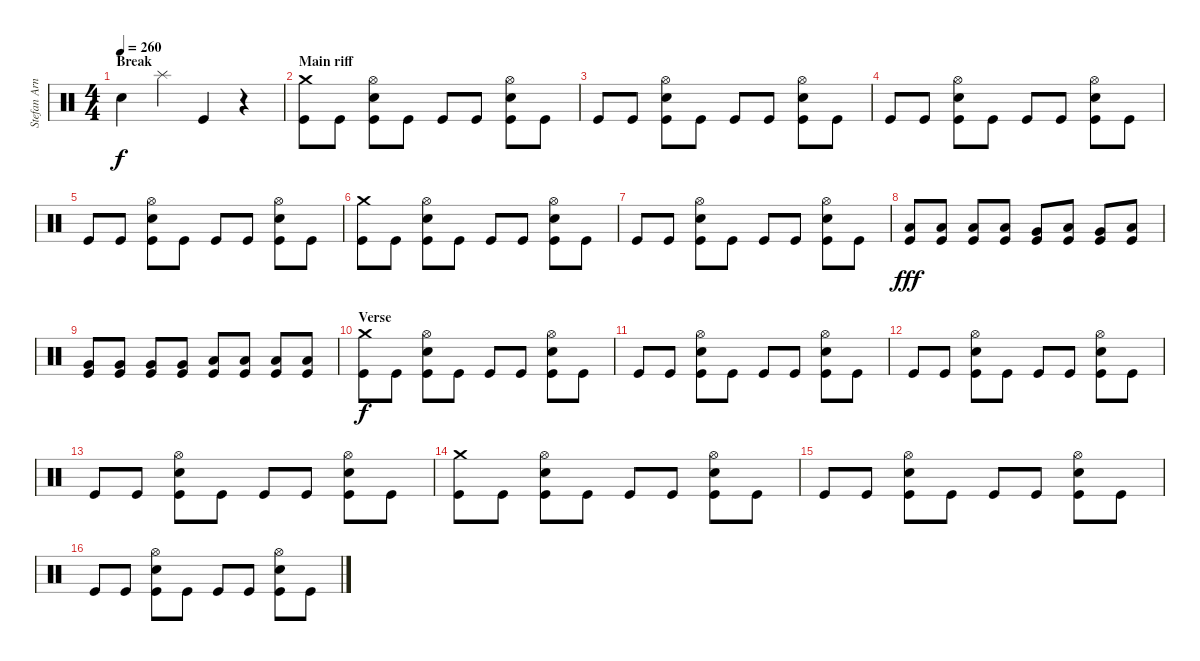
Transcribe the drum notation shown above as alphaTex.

\track ("Stefan Arnold" "Stefan Arn") {instrument percussion}
\staff {score}
\articulation defaults
\ts (4 4)
\section ("" "Break")
\tempo 260
\clef neutral
\ks c "Electric Snare (hit)".4{dy f} "Splash (hit)".4 "Kick (hit)".4
r.4 |
\section ("" "Main riff")
("Crash medium (hit)" "Kick (hit)").8 "Kick (hit)".8 ("Hi-Hat (open)" "Electric Snare (hit)" "Kick (hit)").8 "Kick (hit)".8 "Kick (hit)".8 "Kick (hit)".8 ("Hi-Hat (open)" "Electric Snare (hit)" "Kick (hit)").8 "Kick (hit)".8 |
"Kick (hit)".8 "Kick (hit)".8 ("Hi-Hat (open)" "Electric Snare (hit)" "Kick (hit)").8 "Kick (hit)".8 "Kick (hit)".8 "Kick (hit)".8 ("Hi-Hat (open)" "Electric Snare (hit)" "Kick (hit)").8 "Kick (hit)".8 |
"Kick (hit)".8 "Kick (hit)".8 ("Hi-Hat (open)" "Electric Snare (hit)" "Kick (hit)").8 "Kick (hit)".8 "Kick (hit)".8 "Kick (hit)".8 ("Hi-Hat (open)" "Electric Snare (hit)" "Kick (hit)").8 "Kick (hit)".8 |
"Kick (hit)".8 "Kick (hit)".8 ("Hi-Hat (open)" "Electric Snare (hit)" "Kick (hit)").8 "Kick (hit)".8 "Kick (hit)".8 "Kick (hit)".8 ("Hi-Hat (open)" "Electric Snare (hit)" "Kick (hit)").8 "Kick (hit)".8 |
("Crash medium (hit)" "Kick (hit)").8 "Kick (hit)".8 ("Hi-Hat (open)" "Electric Snare (hit)" "Kick (hit)").8 "Kick (hit)".8 "Kick (hit)".8 "Kick (hit)".8 ("Hi-Hat (open)" "Electric Snare (hit)" "Kick (hit)").8 "Kick (hit)".8 |
"Kick (hit)".8 "Kick (hit)".8 ("Hi-Hat (open)" "Electric Snare (hit)" "Kick (hit)").8 "Kick (hit)".8 "Kick (hit)".8 "Kick (hit)".8 ("Hi-Hat (open)" "Electric Snare (hit)" "Kick (hit)").8 "Kick (hit)".8 |
("Low Tom (hit)" "Kick (hit)").8{dy fff} ("Low Tom (hit)" "Kick (hit)").8 ("Low Tom (hit)" "Kick (hit)").8 ("Low Tom (hit)" "Kick (hit)").8 ("Very Low Tom (hit)" "Kick (hit)").8 ("Low Tom (hit)" "Kick (hit)").8 ("Very Low Tom (hit)" "Kick (hit)").8 ("Low Tom (hit)" "Kick (hit)").8 |
("Very Low Tom (hit)" "Kick (hit)").8 ("Very Low Tom (hit)" "Kick (hit)").8 ("Very Low Tom (hit)" "Kick (hit)").8 ("Very Low Tom (hit)" "Kick (hit)").8 ("Low Floor Tom (hit)" "Kick (hit)").8 ("Low Floor Tom (hit)" "Kick (hit)").8 ("Low Floor Tom (hit)" "Kick (hit)").8 ("Low Floor Tom (hit)" "Kick (hit)").8 |
\section ("" "Verse")
("Crash medium (hit)" "Kick (hit)").8{dy f} "Kick (hit)".8 ("Hi-Hat (open)" "Electric Snare (hit)" "Kick (hit)").8 "Kick (hit)".8 "Kick (hit)".8 "Kick (hit)".8 ("Hi-Hat (open)" "Electric Snare (hit)" "Kick (hit)").8 "Kick (hit)".8 |
"Kick (hit)".8 "Kick (hit)".8 ("Hi-Hat (open)" "Electric Snare (hit)" "Kick (hit)").8 "Kick (hit)".8 "Kick (hit)".8 "Kick (hit)".8 ("Hi-Hat (open)" "Electric Snare (hit)" "Kick (hit)").8 "Kick (hit)".8 |
"Kick (hit)".8 "Kick (hit)".8 ("Hi-Hat (open)" "Electric Snare (hit)" "Kick (hit)").8 "Kick (hit)".8 "Kick (hit)".8 "Kick (hit)".8 ("Hi-Hat (open)" "Electric Snare (hit)" "Kick (hit)").8 "Kick (hit)".8 |
"Kick (hit)".8 "Kick (hit)".8 ("Hi-Hat (open)" "Electric Snare (hit)" "Kick (hit)").8 "Kick (hit)".8 "Kick (hit)".8 "Kick (hit)".8 ("Hi-Hat (open)" "Electric Snare (hit)" "Kick (hit)").8 "Kick (hit)".8 |
("Crash medium (hit)" "Kick (hit)").8 "Kick (hit)".8 ("Hi-Hat (open)" "Electric Snare (hit)" "Kick (hit)").8 "Kick (hit)".8 "Kick (hit)".8 "Kick (hit)".8 ("Hi-Hat (open)" "Electric Snare (hit)" "Kick (hit)").8 "Kick (hit)".8 |
"Kick (hit)".8 "Kick (hit)".8 ("Hi-Hat (open)" "Electric Snare (hit)" "Kick (hit)").8 "Kick (hit)".8 "Kick (hit)".8 "Kick (hit)".8 ("Hi-Hat (open)" "Electric Snare (hit)" "Kick (hit)").8 "Kick (hit)".8 |
"Kick (hit)".8 "Kick (hit)".8 ("Hi-Hat (open)" "Electric Snare (hit)" "Kick (hit)").8 "Kick (hit)".8 "Kick (hit)".8 "Kick (hit)".8 ("Hi-Hat (open)" "Electric Snare (hit)" "Kick (hit)").8 "Kick (hit)".8
